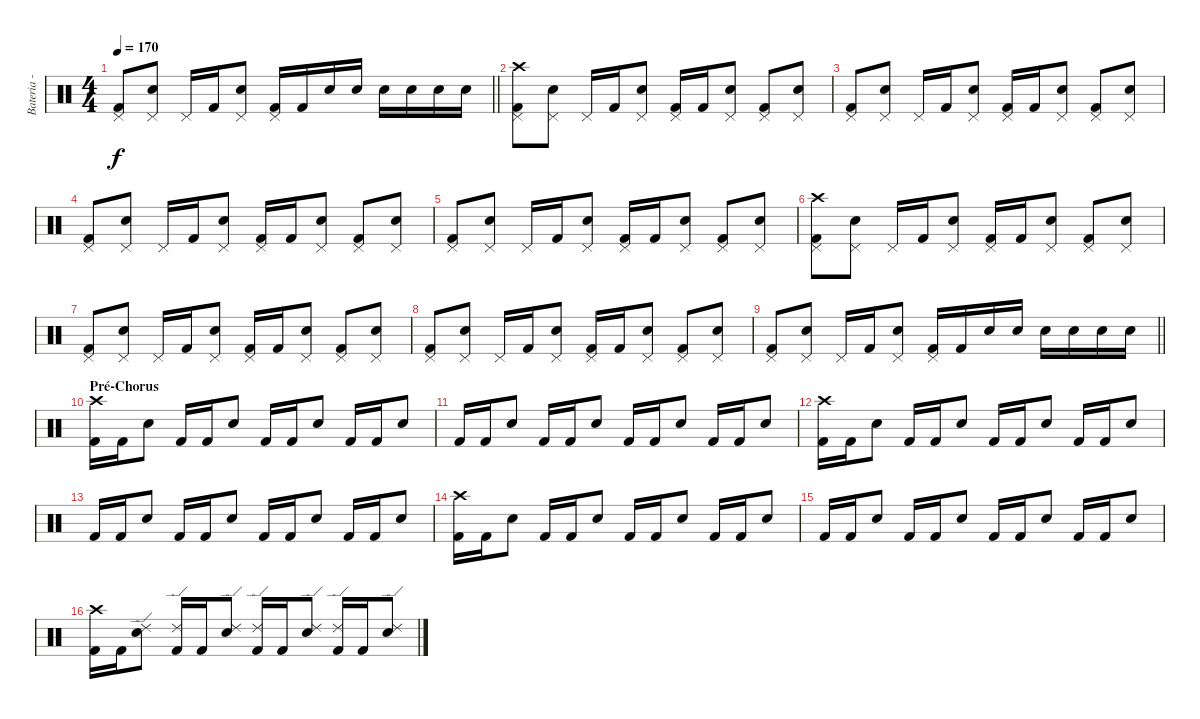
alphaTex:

\track ("Bateria - Larzon" "Bateria - ") {instrument percussion}
\staff {score}
\articulation defaults
\ts (4 4)
\tempo 170
\clef neutral
\barLineRight lightlight
\ks c
("Kick (hit) 2" "Pedal Hi-Hat (hit)").8{dy f} ("Snare (hit) 2" "Pedal Hi-Hat (hit)").8 "Pedal Hi-Hat (hit)".16 "Kick (hit) 2".16 ("Snare (hit) 2" "Pedal Hi-Hat (hit)").8 ("Kick (hit) 2" "Pedal Hi-Hat (hit)").16 "Kick (hit) 2".16 "Snare (hit) 2".16 "Snare (hit) 2".16 "Snare (hit) 2".16 "Snare (hit) 2".16 "Snare (hit) 2".16 "Snare (hit) 2".16 |
("Kick (hit) 2" "Crash high (hit)" "Pedal Hi-Hat (hit)").8 ("Snare (hit) 2" "Pedal Hi-Hat (hit)").8 "Pedal Hi-Hat (hit)".16 "Kick (hit) 2".16 ("Snare (hit) 2" "Pedal Hi-Hat (hit)").8 ("Kick (hit) 2" "Pedal Hi-Hat (hit)").16 "Kick (hit) 2".16 ("Snare (hit) 2" "Pedal Hi-Hat (hit)").8 ("Kick (hit) 2" "Pedal Hi-Hat (hit)").8 ("Snare (hit) 2" "Pedal Hi-Hat (hit)").8 |
("Kick (hit) 2" "Pedal Hi-Hat (hit)").8 ("Snare (hit) 2" "Pedal Hi-Hat (hit)").8 "Pedal Hi-Hat (hit)".16 "Kick (hit) 2".16 ("Snare (hit) 2" "Pedal Hi-Hat (hit)").8 ("Kick (hit) 2" "Pedal Hi-Hat (hit)").16 "Kick (hit) 2".16 ("Snare (hit) 2" "Pedal Hi-Hat (hit)").8 ("Kick (hit) 2" "Pedal Hi-Hat (hit)").8 ("Snare (hit) 2" "Pedal Hi-Hat (hit)").8 |
("Kick (hit) 2" "Pedal Hi-Hat (hit)").8 ("Snare (hit) 2" "Pedal Hi-Hat (hit)").8 "Pedal Hi-Hat (hit)".16 "Kick (hit) 2".16 ("Snare (hit) 2" "Pedal Hi-Hat (hit)").8 ("Kick (hit) 2" "Pedal Hi-Hat (hit)").16 "Kick (hit) 2".16 ("Snare (hit) 2" "Pedal Hi-Hat (hit)").8 ("Kick (hit) 2" "Pedal Hi-Hat (hit)").8 ("Snare (hit) 2" "Pedal Hi-Hat (hit)").8 |
("Kick (hit) 2" "Pedal Hi-Hat (hit)").8 ("Snare (hit) 2" "Pedal Hi-Hat (hit)").8 "Pedal Hi-Hat (hit)".16 "Kick (hit) 2".16 ("Snare (hit) 2" "Pedal Hi-Hat (hit)").8 ("Kick (hit) 2" "Pedal Hi-Hat (hit)").16 "Kick (hit) 2".16 ("Snare (hit) 2" "Pedal Hi-Hat (hit)").8 ("Kick (hit) 2" "Pedal Hi-Hat (hit)").8 ("Snare (hit) 2" "Pedal Hi-Hat (hit)").8 |
("Kick (hit) 2" "Crash high (hit)" "Pedal Hi-Hat (hit)").8 ("Snare (hit) 2" "Pedal Hi-Hat (hit)").8 "Pedal Hi-Hat (hit)".16 "Kick (hit) 2".16 ("Snare (hit) 2" "Pedal Hi-Hat (hit)").8 ("Kick (hit) 2" "Pedal Hi-Hat (hit)").16 "Kick (hit) 2".16 ("Snare (hit) 2" "Pedal Hi-Hat (hit)").8 ("Kick (hit) 2" "Pedal Hi-Hat (hit)").8 ("Snare (hit) 2" "Pedal Hi-Hat (hit)").8 |
("Kick (hit) 2" "Pedal Hi-Hat (hit)").8 ("Snare (hit) 2" "Pedal Hi-Hat (hit)").8 "Pedal Hi-Hat (hit)".16 "Kick (hit) 2".16 ("Snare (hit) 2" "Pedal Hi-Hat (hit)").8 ("Kick (hit) 2" "Pedal Hi-Hat (hit)").16 "Kick (hit) 2".16 ("Snare (hit) 2" "Pedal Hi-Hat (hit)").8 ("Kick (hit) 2" "Pedal Hi-Hat (hit)").8 ("Snare (hit) 2" "Pedal Hi-Hat (hit)").8 |
("Kick (hit) 2" "Pedal Hi-Hat (hit)").8 ("Snare (hit) 2" "Pedal Hi-Hat (hit)").8 "Pedal Hi-Hat (hit)".16 "Kick (hit) 2".16 ("Snare (hit) 2" "Pedal Hi-Hat (hit)").8 ("Kick (hit) 2" "Pedal Hi-Hat (hit)").16 "Kick (hit) 2".16 ("Snare (hit) 2" "Pedal Hi-Hat (hit)").8 ("Kick (hit) 2" "Pedal Hi-Hat (hit)").8 ("Snare (hit) 2" "Pedal Hi-Hat (hit)").8 |
\barLineRight lightlight
("Kick (hit) 2" "Pedal Hi-Hat (hit)").8 ("Snare (hit) 2" "Pedal Hi-Hat (hit)").8 "Pedal Hi-Hat (hit)".16 "Kick (hit) 2".16 ("Snare (hit) 2" "Pedal Hi-Hat (hit)").8 ("Kick (hit) 2" "Pedal Hi-Hat (hit)").16 "Kick (hit) 2".16 "Snare (hit) 2".16 "Snare (hit) 2".16 "Snare (hit) 2".16 "Snare (hit) 2".16 "Snare (hit) 2".16 "Snare (hit) 2".16 |
\section ("" "Pré-Chorus")
("Kick (hit) 2" "Crash high (hit)").16 "Kick (hit) 2".16 "Snare (hit) 2".8 "Kick (hit) 2".16 "Kick (hit) 2".16 "Snare (hit) 2".8 "Kick (hit) 2".16 "Kick (hit) 2".16 "Snare (hit) 2".8 "Kick (hit) 2".16 "Kick (hit) 2".16 "Snare (hit) 2".8 |
"Kick (hit) 2".16 "Kick (hit) 2".16 "Snare (hit) 2".8 "Kick (hit) 2".16 "Kick (hit) 2".16 "Snare (hit) 2".8 "Kick (hit) 2".16 "Kick (hit) 2".16 "Snare (hit) 2".8 "Kick (hit) 2".16 "Kick (hit) 2".16 "Snare (hit) 2".8 |
("Kick (hit) 2" "Crash high (hit)").16 "Kick (hit) 2".16 "Snare (hit) 2".8 "Kick (hit) 2".16 "Kick (hit) 2".16 "Snare (hit) 2".8 "Kick (hit) 2".16 "Kick (hit) 2".16 "Snare (hit) 2".8 "Kick (hit) 2".16 "Kick (hit) 2".16 "Snare (hit) 2".8 |
"Kick (hit) 2".16 "Kick (hit) 2".16 "Snare (hit) 2".8 "Kick (hit) 2".16 "Kick (hit) 2".16 "Snare (hit) 2".8 "Kick (hit) 2".16 "Kick (hit) 2".16 "Snare (hit) 2".8 "Kick (hit) 2".16 "Kick (hit) 2".16 "Snare (hit) 2".8 |
("Kick (hit) 2" "Crash high (hit)").16 "Kick (hit) 2".16 "Snare (hit) 2".8 "Kick (hit) 2".16 "Kick (hit) 2".16 "Snare (hit) 2".8 "Kick (hit) 2".16 "Kick (hit) 2".16 "Snare (hit) 2".8 "Kick (hit) 2".16 "Kick (hit) 2".16 "Snare (hit) 2".8 |
"Kick (hit) 2".16 "Kick (hit) 2".16 "Snare (hit) 2".8 "Kick (hit) 2".16 "Kick (hit) 2".16 "Snare (hit) 2".8 "Kick (hit) 2".16 "Kick (hit) 2".16 "Snare (hit) 2".8 "Kick (hit) 2".16 "Kick (hit) 2".16 "Snare (hit) 2".8 |
("Kick (hit) 2" "Crash high (hit)").16 "Kick (hit) 2".16 ("Snare (hit) 2" "Ride (edge) 2").8 ("Kick (hit) 2" "Ride (edge) 2").16 "Kick (hit) 2".16 ("Snare (hit) 2" "Ride (edge) 2").8 ("Kick (hit) 2" "Ride (edge) 2").16 "Kick (hit) 2".16 ("Snare (hit) 2" "Ride (edge) 2").8 ("Kick (hit) 2" "Ride (edge) 2").16 "Kick (hit) 2".16 ("Snare (hit) 2" "Ride (edge) 2").8
